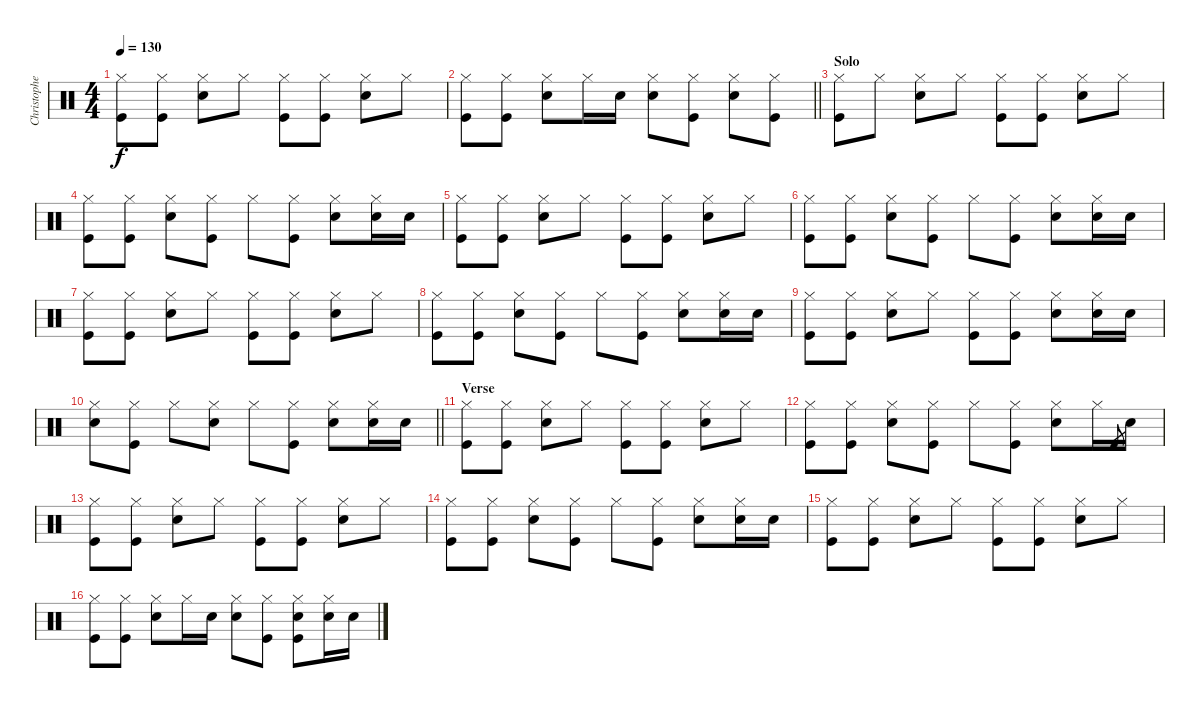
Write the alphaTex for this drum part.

\track ("Christopher - Drums" "Christophe") {instrument percussion}
\staff {score}
\articulation defaults
\ts (4 4)
\tempo 130
\clef neutral
\ks c
("Hi-Hat (closed)" "Kick (hit)").8{dy f} ("Hi-Hat (closed)" "Kick (hit)").8 ("Hi-Hat (closed)" "Snare (hit) 2").8 "Hi-Hat (closed)".8 ("Hi-Hat (closed)" "Kick (hit)").8 ("Hi-Hat (closed)" "Kick (hit)").8 ("Hi-Hat (closed)" "Snare (hit) 2").8 "Hi-Hat (closed)".8 |
\barLineRight lightlight
("Hi-Hat (closed)" "Kick (hit)").8 ("Hi-Hat (closed)" "Kick (hit)").8 ("Hi-Hat (closed)" "Snare (hit) 2").8 "Hi-Hat (closed)".16 "Snare (hit) 2".16 ("Hi-Hat (closed)" "Snare (hit) 2").8 ("Hi-Hat (closed)" "Kick (hit)").8 ("Hi-Hat (closed)" "Snare (hit) 2").8 ("Hi-Hat (closed)" "Kick (hit)").8 |
\section ("" "Solo")
("Hi-Hat (closed)" "Kick (hit)").8 "Hi-Hat (closed)".8 ("Hi-Hat (closed)" "Snare (hit) 2").8 "Hi-Hat (closed)".8 ("Hi-Hat (closed)" "Kick (hit)").8 ("Hi-Hat (closed)" "Kick (hit)").8 ("Hi-Hat (closed)" "Snare (hit) 2").8 "Hi-Hat (closed)".8 |
("Hi-Hat (closed)" "Kick (hit)").8 ("Hi-Hat (closed)" "Kick (hit)").8 ("Hi-Hat (closed)" "Snare (hit) 2").8 ("Hi-Hat (closed)" "Kick (hit)").8 "Hi-Hat (closed)".8 ("Hi-Hat (closed)" "Kick (hit)").8 ("Hi-Hat (closed)" "Snare (hit) 2").8 ("Hi-Hat (closed)" "Snare (hit) 2").16 "Snare (hit) 2".16 |
("Hi-Hat (closed)" "Kick (hit)").8 ("Hi-Hat (closed)" "Kick (hit)").8 ("Hi-Hat (closed)" "Snare (hit) 2").8 "Hi-Hat (closed)".8 ("Hi-Hat (closed)" "Kick (hit)").8 ("Hi-Hat (closed)" "Kick (hit)").8 ("Hi-Hat (closed)" "Snare (hit) 2").8 "Hi-Hat (closed)".8 |
("Hi-Hat (closed)" "Kick (hit)").8 ("Hi-Hat (closed)" "Kick (hit)").8 ("Hi-Hat (closed)" "Snare (hit) 2").8 ("Hi-Hat (closed)" "Kick (hit)").8 "Hi-Hat (closed)".8 ("Hi-Hat (closed)" "Kick (hit)").8 ("Hi-Hat (closed)" "Snare (hit) 2").8 ("Hi-Hat (closed)" "Snare (hit) 2").16 "Snare (hit) 2".16 |
("Hi-Hat (closed)" "Kick (hit)").8 ("Hi-Hat (closed)" "Kick (hit)").8 ("Hi-Hat (closed)" "Snare (hit) 2").8 "Hi-Hat (closed)".8 ("Hi-Hat (closed)" "Kick (hit)").8 ("Hi-Hat (closed)" "Kick (hit)").8 ("Hi-Hat (closed)" "Snare (hit) 2").8 "Hi-Hat (closed)".8 |
("Hi-Hat (closed)" "Kick (hit)").8 ("Hi-Hat (closed)" "Kick (hit)").8 ("Hi-Hat (closed)" "Snare (hit) 2").8 ("Hi-Hat (closed)" "Kick (hit)").8 "Hi-Hat (closed)".8 ("Hi-Hat (closed)" "Kick (hit)").8 ("Hi-Hat (closed)" "Snare (hit) 2").8 ("Hi-Hat (closed)" "Snare (hit) 2").16 "Snare (hit) 2".16 |
("Hi-Hat (closed)" "Kick (hit)").8 ("Hi-Hat (closed)" "Kick (hit)").8 ("Hi-Hat (closed)" "Snare (hit) 2").8 "Hi-Hat (closed)".8 ("Hi-Hat (closed)" "Kick (hit)").8 ("Hi-Hat (closed)" "Kick (hit)").8 ("Hi-Hat (closed)" "Snare (hit) 2").8 ("Hi-Hat (closed)" "Snare (hit) 2").16 "Snare (hit) 2".16 |
\barLineRight lightlight
("Hi-Hat (closed)" "Snare (hit) 2").8 ("Hi-Hat (closed)" "Kick (hit)").8 "Hi-Hat (closed)".8 ("Hi-Hat (closed)" "Snare (hit) 2").8 "Hi-Hat (closed)".8 ("Hi-Hat (closed)" "Kick (hit)").8 ("Hi-Hat (closed)" "Snare (hit) 2").8 ("Hi-Hat (closed)" "Snare (hit) 2").16 "Snare (hit) 2".16 |
\section ("" "Verse")
("Hi-Hat (closed)" "Kick (hit)").8 ("Hi-Hat (closed)" "Kick (hit)").8 ("Hi-Hat (closed)" "Snare (hit) 2").8 "Hi-Hat (closed)".8 ("Hi-Hat (closed)" "Kick (hit)").8 ("Hi-Hat (closed)" "Kick (hit)").8 ("Hi-Hat (closed)" "Snare (hit) 2").8 "Hi-Hat (closed)".8 |
("Hi-Hat (closed)" "Kick (hit)").8 ("Hi-Hat (closed)" "Kick (hit)").8 ("Hi-Hat (closed)" "Snare (hit) 2").8 ("Hi-Hat (closed)" "Kick (hit)").8 "Hi-Hat (closed)".8 ("Hi-Hat (closed)" "Kick (hit)").8 ("Hi-Hat (closed)" "Snare (hit) 2").8 "Hi-Hat (closed)".16 "Kick (hit)".8{gr} "Snare (hit) 2".16 |
("Hi-Hat (closed)" "Kick (hit)").8 ("Hi-Hat (closed)" "Kick (hit)").8 ("Hi-Hat (closed)" "Snare (hit) 2").8 "Hi-Hat (closed)".8 ("Hi-Hat (closed)" "Kick (hit)").8 ("Hi-Hat (closed)" "Kick (hit)").8 ("Hi-Hat (closed)" "Snare (hit) 2").8 "Hi-Hat (closed)".8 |
("Hi-Hat (closed)" "Kick (hit)").8 ("Hi-Hat (closed)" "Kick (hit)").8 ("Hi-Hat (closed)" "Snare (hit) 2").8 ("Hi-Hat (closed)" "Kick (hit)").8 "Hi-Hat (closed)".8 ("Hi-Hat (closed)" "Kick (hit)").8 ("Hi-Hat (closed)" "Snare (hit) 2").8 ("Hi-Hat (closed)" "Snare (hit) 2").16 "Snare (hit) 2".16 |
("Hi-Hat (closed)" "Kick (hit)").8 ("Hi-Hat (closed)" "Kick (hit)").8 ("Hi-Hat (closed)" "Snare (hit) 2").8 "Hi-Hat (closed)".8 ("Hi-Hat (closed)" "Kick (hit)").8 ("Hi-Hat (closed)" "Kick (hit)").8 ("Hi-Hat (closed)" "Snare (hit) 2").8 "Hi-Hat (closed)".8 |
("Hi-Hat (closed)" "Kick (hit)").8 ("Hi-Hat (closed)" "Kick (hit)").8 ("Hi-Hat (closed)" "Snare (hit) 2").8 "Hi-Hat (closed)".16 "Snare (hit) 2".16 ("Hi-Hat (closed)" "Snare (hit) 2").8 ("Hi-Hat (closed)" "Kick (hit)").8 ("Hi-Hat (closed)" "Snare (hit) 2" "Kick (hit)").8 ("Hi-Hat (closed)" "Snare (hit) 2").16 "Snare (hit) 2".16
